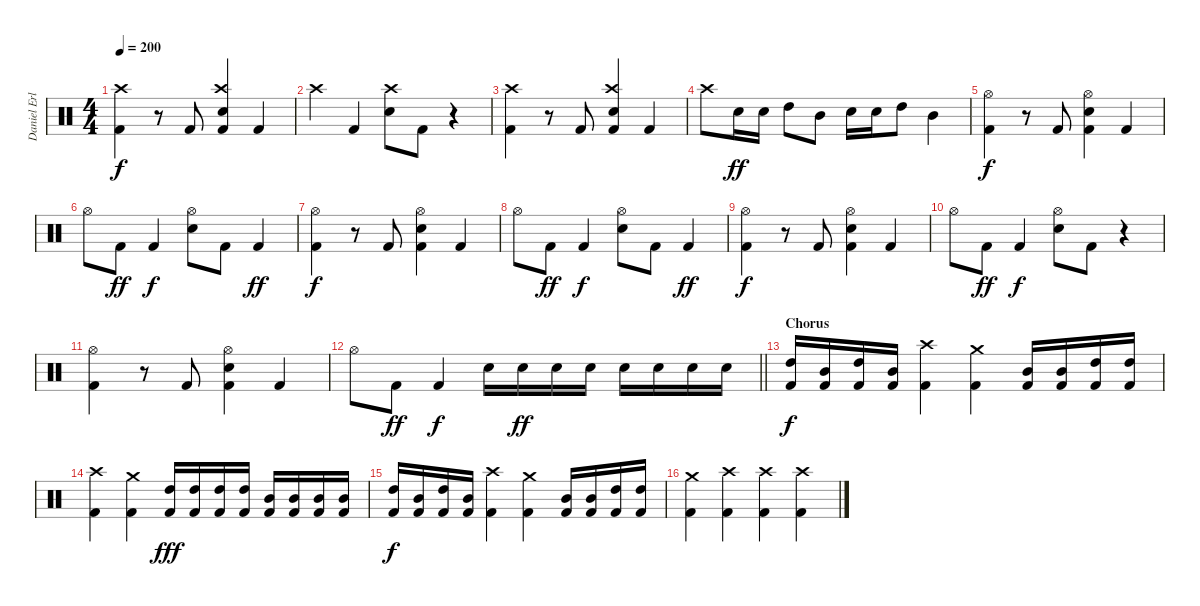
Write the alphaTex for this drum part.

\track ("Daniel Erlandsson" "Daniel Erl") {instrument percussion}
\staff {score}
\articulation defaults
\ts (4 4)
\tempo 200
\clef neutral
\ks c
("Kick (hit) 2" "Crash high (hit)").4{dy f} r.8 "Kick (hit) 2".8 ("Kick (hit) 2" "Snare (hit) 2" "Crash high (hit)").4 "Kick (hit) 2".4 |
"Crash high (hit)".4 "Kick (hit) 2".4 ("Snare (hit) 2" "Crash high (hit)").8 "Kick (hit) 2".8 r.4 |
("Kick (hit) 2" "Crash high (hit)").4 r.8 "Kick (hit) 2".8 ("Kick (hit) 2" "Snare (hit) 2" "Crash high (hit)").4 "Kick (hit) 2".4 |
"Crash high (hit)".8 "Snare (hit) 2".16{dy ff} "Snare (hit) 2".16 "High Tom (hit)".8 "Mid Tom (hit)".8 "Snare (hit) 2".16 "Snare (hit) 2".16 "High Tom (hit)".8 "Mid Tom (hit)".4 |
("Kick (hit) 2" "Hi-Hat (open)").4{dy f} r.8 "Kick (hit) 2".8 ("Kick (hit) 2" "Snare (hit) 2" "Hi-Hat (open)").4 "Kick (hit) 2".4 |
"Hi-Hat (open)".8 "Kick (hit) 2".8{dy ff} "Kick (hit) 2".4{dy f} ("Snare (hit) 2" "Hi-Hat (open)").8 "Kick (hit) 2".8 "Kick (hit) 2".4{dy ff} |
("Kick (hit) 2" "Hi-Hat (open)").4{dy f} r.8 "Kick (hit) 2".8 ("Kick (hit) 2" "Snare (hit) 2" "Hi-Hat (open)").4 "Kick (hit) 2".4 |
"Hi-Hat (open)".8 "Kick (hit) 2".8{dy ff} "Kick (hit) 2".4{dy f} ("Snare (hit) 2" "Hi-Hat (open)").8 "Kick (hit) 2".8 "Kick (hit) 2".4{dy ff} |
("Kick (hit) 2" "Hi-Hat (open)").4{dy f} r.8 "Kick (hit) 2".8 ("Kick (hit) 2" "Snare (hit) 2" "Hi-Hat (open)").4 "Kick (hit) 2".4 |
"Hi-Hat (open)".8 "Kick (hit) 2".8{dy ff} "Kick (hit) 2".4{dy f} ("Snare (hit) 2" "Hi-Hat (open)").8 "Kick (hit) 2".8 r.4 |
("Kick (hit) 2" "Hi-Hat (open)").4 r.8 "Kick (hit) 2".8 ("Kick (hit) 2" "Snare (hit) 2" "Hi-Hat (open)").4 "Kick (hit) 2".4 |
\barLineRight lightlight "Hi-Hat (open)".8 "Kick (hit) 2".8{dy ff} "Kick (hit) 2".4{dy f} "Snare (hit) 2".16 "Snare (hit) 2".16{dy ff} "Snare (hit) 2".16 "Snare (hit) 2".16 "Snare (hit) 2".16 "Snare (hit) 2".16 "Snare (hit) 2".16 "Snare (hit) 2".16
|
\section ("" "Chorus")
("Kick (hit) 2" "High Tom (hit)").16{dy f} ("Kick (hit) 2" "Mid Tom (hit)").16 ("Kick (hit) 2" "High Tom (hit)").16 ("Kick (hit) 2" "Mid Tom (hit)").16 ("Kick (hit) 2" "Crash high (hit)").4 ("Kick (hit) 2" "Crash medium (hit)").4 ("Kick (hit) 2" "Mid Tom (hit)").16 ("Kick (hit) 2" "Mid Tom (hit)").16 ("Kick (hit) 2" "High Tom (hit)").16 ("Kick (hit) 2" "High Tom (hit)").16 |
("Kick (hit) 2" "Crash high (hit)").4 ("Kick (hit) 2" "Crash medium (hit)").4 ("Kick (hit) 2" "High Tom (hit)").16{dy fff} ("Kick (hit) 2" "High Tom (hit)").16 ("Kick (hit) 2" "High Tom (hit)").16 ("Kick (hit) 2" "High Tom (hit)").16 ("Kick (hit) 2" "Mid Tom (hit)").16 ("Kick (hit) 2" "Mid Tom (hit)").16 ("Kick (hit) 2" "Mid Tom (hit)").16 ("Kick (hit) 2" "Mid Tom (hit)").16 |
("Kick (hit) 2" "High Tom (hit)").16{dy f} ("Kick (hit) 2" "Mid Tom (hit)").16 ("Kick (hit) 2" "High Tom (hit)").16 ("Kick (hit) 2" "Mid Tom (hit)").16 ("Kick (hit) 2" "Crash high (hit)").4 ("Kick (hit) 2" "Crash medium (hit)").4 ("Kick (hit) 2" "Mid Tom (hit)").16 ("Kick (hit) 2" "Mid Tom (hit)").16 ("Kick (hit) 2" "High Tom (hit)").16 ("Kick (hit) 2" "High Tom (hit)").16 |
("Kick (hit) 2" "Crash medium (hit)").4 ("Kick (hit) 2" "Crash high (hit)").4 ("Kick (hit) 2" "Crash high (hit)").4 ("Kick (hit) 2" "Crash high (hit)").4
